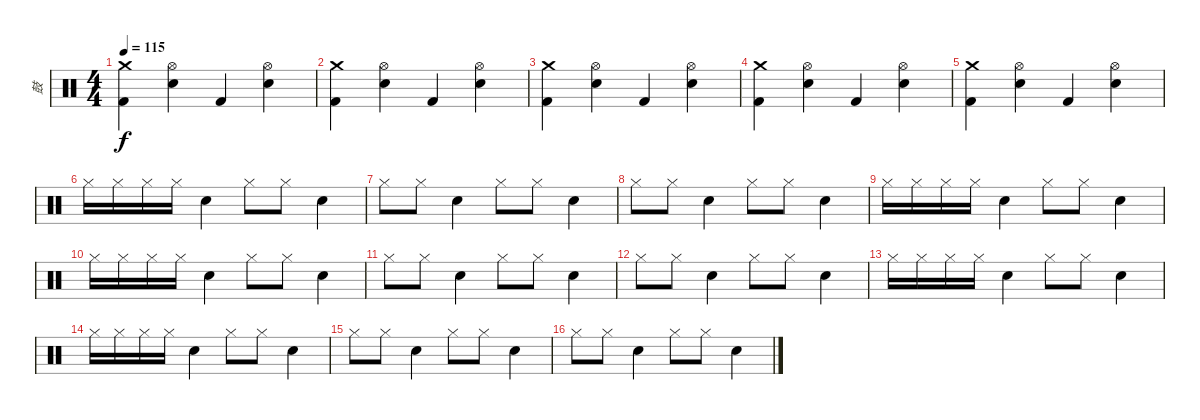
\track ("鼓" "鼓") {instrument percussion}
\staff {score}
\articulation defaults
\ts (4 4)
\tempo 115
\clef neutral
\ks c
("Kick (hit) 2" "Crash medium (hit)").4{dy f} ("Snare (hit) 2" "Hi-Hat (open)").4 "Kick (hit) 2".4 ("Snare (hit) 2" "Hi-Hat (open)").4 |
("Kick (hit) 2" "Crash medium (hit)").4 ("Snare (hit) 2" "Hi-Hat (open)").4 "Kick (hit) 2".4 ("Snare (hit) 2" "Hi-Hat (open)").4 |
("Kick (hit) 2" "Crash medium (hit)").4 ("Snare (hit) 2" "Hi-Hat (open)").4 "Kick (hit) 2".4 ("Snare (hit) 2" "Hi-Hat (open)").4 |
("Kick (hit) 2" "Crash medium (hit)").4 ("Snare (hit) 2" "Hi-Hat (open)").4 "Kick (hit) 2".4 ("Snare (hit) 2" "Hi-Hat (open)").4 |
("Kick (hit) 2" "Crash medium (hit)").4 ("Snare (hit) 2" "Hi-Hat (open)").4 "Kick (hit) 2".4 ("Snare (hit) 2" "Hi-Hat (open)").4 |
"Hi-Hat (closed)".16 "Hi-Hat (closed)".16 "Hi-Hat (closed)".16 "Hi-Hat (closed)".16 "Snare (hit) 2".4 "Hi-Hat (closed)".8 "Hi-Hat (closed)".8 "Snare (hit) 2".4 |
"Hi-Hat (closed)".8 "Hi-Hat (closed)".8 "Snare (hit) 2".4 "Hi-Hat (closed)".8 "Hi-Hat (closed)".8 "Snare (hit) 2".4 |
"Hi-Hat (closed)".8 "Hi-Hat (closed)".8 "Snare (hit) 2".4 "Hi-Hat (closed)".8 "Hi-Hat (closed)".8 "Snare (hit) 2".4 |
"Hi-Hat (closed)".16 "Hi-Hat (closed)".16 "Hi-Hat (closed)".16 "Hi-Hat (closed)".16 "Snare (hit) 2".4 "Hi-Hat (closed)".8 "Hi-Hat (closed)".8 "Snare (hit) 2".4 |
"Hi-Hat (closed)".16 "Hi-Hat (closed)".16 "Hi-Hat (closed)".16 "Hi-Hat (closed)".16 "Snare (hit) 2".4 "Hi-Hat (closed)".8 "Hi-Hat (closed)".8 "Snare (hit) 2".4 |
"Hi-Hat (closed)".8 "Hi-Hat (closed)".8 "Snare (hit) 2".4 "Hi-Hat (closed)".8 "Hi-Hat (closed)".8 "Snare (hit) 2".4 |
"Hi-Hat (closed)".8 "Hi-Hat (closed)".8 "Snare (hit) 2".4 "Hi-Hat (closed)".8 "Hi-Hat (closed)".8 "Snare (hit) 2".4 |
"Hi-Hat (closed)".16 "Hi-Hat (closed)".16 "Hi-Hat (closed)".16 "Hi-Hat (closed)".16 "Snare (hit) 2".4 "Hi-Hat (closed)".8 "Hi-Hat (closed)".8 "Snare (hit) 2".4 |
"Hi-Hat (closed)".16 "Hi-Hat (closed)".16 "Hi-Hat (closed)".16 "Hi-Hat (closed)".16 "Snare (hit) 2".4 "Hi-Hat (closed)".8 "Hi-Hat (closed)".8 "Snare (hit) 2".4 |
"Hi-Hat (closed)".8 "Hi-Hat (closed)".8 "Snare (hit) 2".4 "Hi-Hat (closed)".8 "Hi-Hat (closed)".8 "Snare (hit) 2".4 |
"Hi-Hat (closed)".8 "Hi-Hat (closed)".8 "Snare (hit) 2".4 "Hi-Hat (closed)".8 "Hi-Hat (closed)".8 "Snare (hit) 2".4
